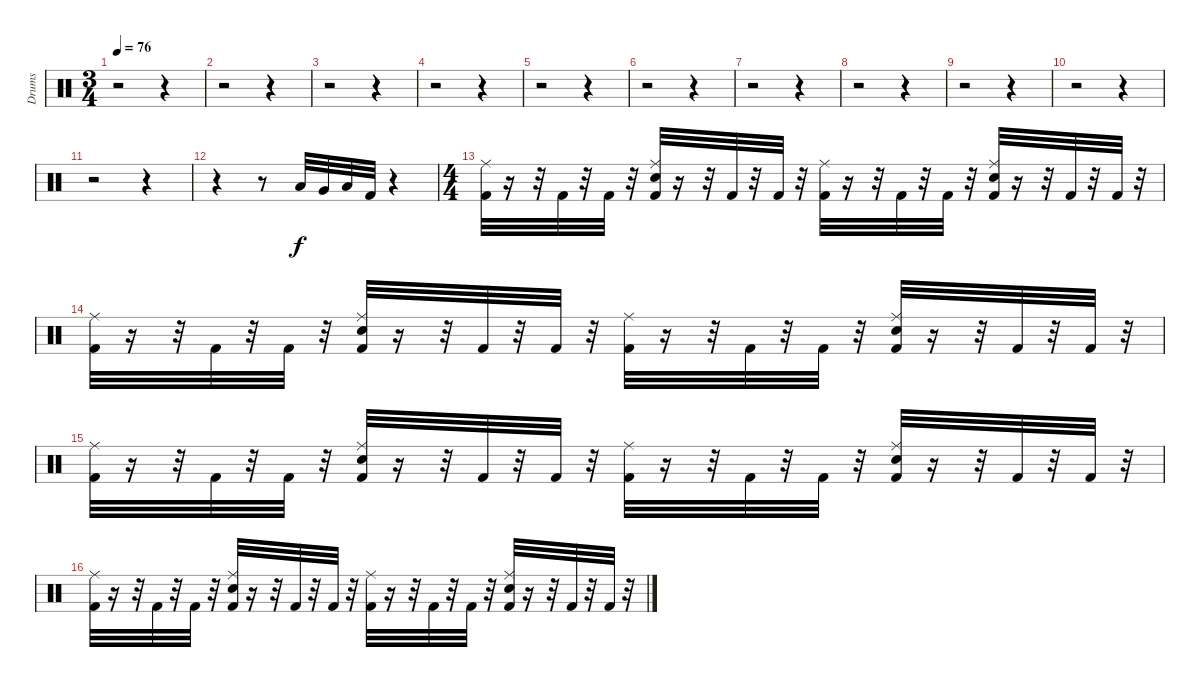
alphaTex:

\track ("Drums" "Drums") {instrument percussion}
\staff {score}
\articulation defaults
\ts (3 4)
\tempo 76
\clef neutral
\ks c
r.2{dy f} r.4 |
r.2 r.4 |
r.2 r.4 |
r.2 r.4 |
r.2 r.4 |
r.2 r.4 |
r.2 r.4 |
r.2 r.4 |
r.2 r.4 |
r.2 r.4 |
r.2 r.4 |
r.4 r.8 "Low Tom (hit)".32 "Very Low Tom (hit)".32 "Low Floor Tom (hit)".32 "Kick (hit) 2".32 r.4 |
\ts (4 4)
("Kick (hit) 2" "Ride (middle)").32 r.16 r.32 "Kick (hit) 2".32 r.32 "Kick (hit) 2".32 r.32 ("Ride (middle)" "Snare (hit) 2" "Kick (hit) 2").32 r.16 r.32 "Kick (hit) 2".32 r.32 "Kick (hit) 2".32 r.32 ("Kick (hit) 2" "Ride (middle)").32 r.16 r.32 "Kick (hit) 2".32 r.32 "Kick (hit) 2".32 r.32 ("Snare (hit) 2" "Ride (middle)" "Kick (hit) 2").32 r.16 r.32 "Kick (hit) 2".32 r.32 "Kick (hit) 2".32 r.32 |
("Ride (middle)" "Kick (hit) 2").32 r.16 r.32 "Kick (hit) 2".32 r.32 "Kick (hit) 2".32 r.32 ("Ride (middle)" "Snare (hit) 2" "Kick (hit) 2").32 r.16 r.32 "Kick (hit) 2".32 r.32 "Kick (hit) 2".32 r.32 ("Ride (middle)" "Kick (hit) 2").32 r.16 r.32 "Kick (hit) 2".32 r.32 "Kick (hit) 2".32 r.32 ("Ride (middle)" "Snare (hit) 2" "Kick (hit) 2").32 r.16 r.32 "Kick (hit) 2".32 r.32 "Kick (hit) 2".32 r.32 |
("Ride (middle)" "Kick (hit) 2").32 r.16 r.32 "Kick (hit) 2".32 r.32 "Kick (hit) 2".32 r.32 ("Ride (middle)" "Snare (hit) 2" "Kick (hit) 2").32 r.16 r.32 "Kick (hit) 2".32 r.32 "Kick (hit) 2".32 r.32 ("Ride (middle)" "Kick (hit) 2").32 r.16 r.32 "Kick (hit) 2".32 r.32 "Kick (hit) 2".32 r.32 ("Ride (middle)" "Snare (hit) 2" "Kick (hit) 2").32 r.16 r.32 "Kick (hit) 2".32 r.32 "Kick (hit) 2".32 r.32 |
("Ride (middle)" "Kick (hit) 2").32 r.16 r.32 "Kick (hit) 2".32 r.32 "Kick (hit) 2".32 r.32 ("Ride (middle)" "Snare (hit) 2" "Kick (hit) 2").32 r.16 r.32 "Kick (hit) 2".32 r.32 "Kick (hit) 2".32 r.32 ("Ride (middle)" "Kick (hit) 2").32 r.16 r.32 "Kick (hit) 2".32 r.32 "Kick (hit) 2".32 r.32 ("Ride (middle)" "Snare (hit) 2" "Kick (hit) 2").32 r.16 r.32 "Kick (hit) 2".32 r.32 "Kick (hit) 2".32 r.32
